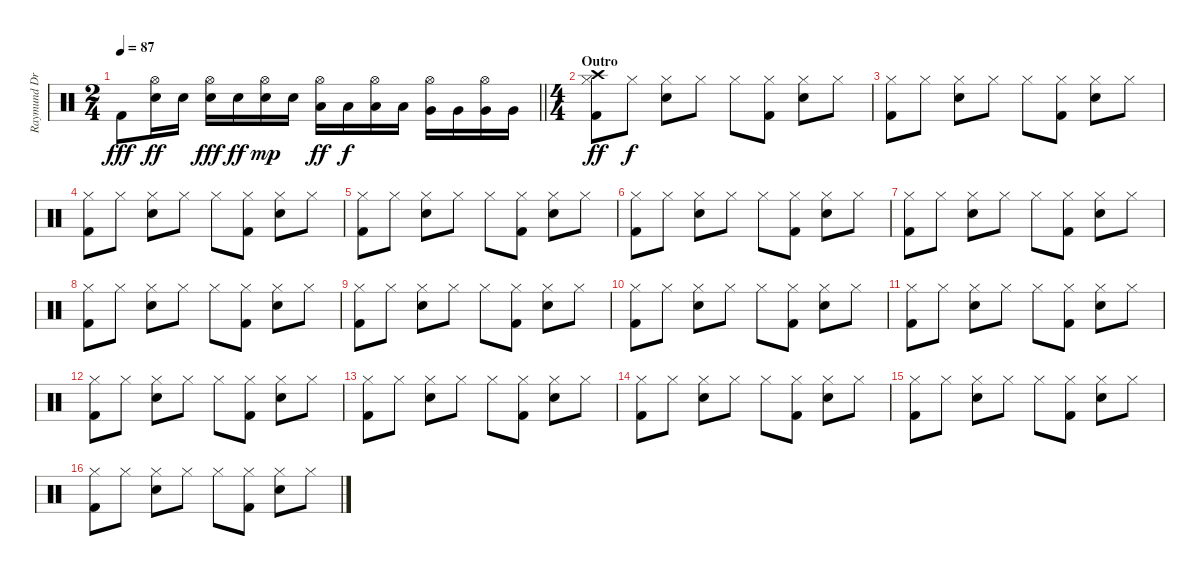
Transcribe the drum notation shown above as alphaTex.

\track ("Raymund Drums" "Raymund Dr") {instrument percussion}
\staff {score}
\articulation defaults
\ts (2 4)
\tempo 87
\clef neutral
\barLineRight lightlight
\ks c "Kick (hit) 2".8{dy fff}
("Hi-Hat (open)" "Snare (hit) 2").16{dy ff} "Snare (hit) 2".16 ("Hi-Hat (open)" "Snare (hit) 2").16{dy fff} "Snare (hit) 2".16{dy ff} ("Hi-Hat (open)" "Snare (hit) 2").16{dy mp} "Snare (hit) 2".16 ("Hi-Hat (open)" "Low Tom (hit)").16{dy ff} "Low Tom (hit)".16{dy f} ("Hi-Hat (open)" "Low Tom (hit)").16 "Low Tom (hit)".16 ("Hi-Hat (open)" "Very Low Tom (hit)").16 "Very Low Tom (hit)".16 ("Hi-Hat (open)" "Very Low Tom (hit)").16 "Very Low Tom (hit)".16 |
\ts (4 4)
\section ("" "Outro")
("Hi-Hat (closed)" "Kick (hit) 2" "Crash high (hit)").8{dy ff} "Hi-Hat (closed)".8{dy f} ("Hi-Hat (closed)" "Snare (hit) 2").8 "Hi-Hat (closed)".8 "Hi-Hat (closed)".8 ("Hi-Hat (closed)" "Kick (hit) 2").8 ("Hi-Hat (closed)" "Snare (hit) 2").8 "Hi-Hat (closed)".8 |
("Hi-Hat (closed)" "Kick (hit) 2").8 "Hi-Hat (closed)".8 ("Hi-Hat (closed)" "Snare (hit) 2").8 "Hi-Hat (closed)".8 "Hi-Hat (closed)".8 ("Hi-Hat (closed)" "Kick (hit) 2").8 ("Hi-Hat (closed)" "Snare (hit) 2").8 "Hi-Hat (closed)".8 |
("Hi-Hat (closed)" "Kick (hit) 2").8 "Hi-Hat (closed)".8 ("Hi-Hat (closed)" "Snare (hit) 2").8 "Hi-Hat (closed)".8 "Hi-Hat (closed)".8 ("Hi-Hat (closed)" "Kick (hit) 2").8 ("Hi-Hat (closed)" "Snare (hit) 2").8 "Hi-Hat (closed)".8 |
("Hi-Hat (closed)" "Kick (hit) 2").8 "Hi-Hat (closed)".8 ("Hi-Hat (closed)" "Snare (hit) 2").8 "Hi-Hat (closed)".8 "Hi-Hat (closed)".8 ("Hi-Hat (closed)" "Kick (hit) 2").8 ("Hi-Hat (closed)" "Snare (hit) 2").8 "Hi-Hat (closed)".8 |
("Hi-Hat (closed)" "Kick (hit) 2").8 "Hi-Hat (closed)".8 ("Hi-Hat (closed)" "Snare (hit) 2").8 "Hi-Hat (closed)".8 "Hi-Hat (closed)".8 ("Hi-Hat (closed)" "Kick (hit) 2").8 ("Hi-Hat (closed)" "Snare (hit) 2").8 "Hi-Hat (closed)".8 |
("Hi-Hat (closed)" "Kick (hit) 2").8 "Hi-Hat (closed)".8 ("Hi-Hat (closed)" "Snare (hit) 2").8 "Hi-Hat (closed)".8 "Hi-Hat (closed)".8 ("Hi-Hat (closed)" "Kick (hit) 2").8 ("Hi-Hat (closed)" "Snare (hit) 2").8 "Hi-Hat (closed)".8 |
("Hi-Hat (closed)" "Kick (hit) 2").8 "Hi-Hat (closed)".8 ("Hi-Hat (closed)" "Snare (hit) 2").8 "Hi-Hat (closed)".8 "Hi-Hat (closed)".8 ("Hi-Hat (closed)" "Kick (hit) 2").8 ("Hi-Hat (closed)" "Snare (hit) 2").8 "Hi-Hat (closed)".8 |
("Hi-Hat (closed)" "Kick (hit) 2").8 "Hi-Hat (closed)".8 ("Hi-Hat (closed)" "Snare (hit) 2").8 "Hi-Hat (closed)".8 "Hi-Hat (closed)".8 ("Hi-Hat (closed)" "Kick (hit) 2").8 ("Hi-Hat (closed)" "Snare (hit) 2").8 "Hi-Hat (closed)".8 |
("Hi-Hat (closed)" "Kick (hit) 2").8 "Hi-Hat (closed)".8 ("Hi-Hat (closed)" "Snare (hit) 2").8 "Hi-Hat (closed)".8 "Hi-Hat (closed)".8 ("Hi-Hat (closed)" "Kick (hit) 2").8 ("Hi-Hat (closed)" "Snare (hit) 2").8 "Hi-Hat (closed)".8 |
("Hi-Hat (closed)" "Kick (hit) 2").8 "Hi-Hat (closed)".8 ("Hi-Hat (closed)" "Snare (hit) 2").8 "Hi-Hat (closed)".8 "Hi-Hat (closed)".8 ("Hi-Hat (closed)" "Kick (hit) 2").8 ("Hi-Hat (closed)" "Snare (hit) 2").8 "Hi-Hat (closed)".8 |
("Hi-Hat (closed)" "Kick (hit) 2").8 "Hi-Hat (closed)".8 ("Hi-Hat (closed)" "Snare (hit) 2").8 "Hi-Hat (closed)".8 "Hi-Hat (closed)".8 ("Hi-Hat (closed)" "Kick (hit) 2").8 ("Hi-Hat (closed)" "Snare (hit) 2").8 "Hi-Hat (closed)".8 |
("Hi-Hat (closed)" "Kick (hit) 2").8 "Hi-Hat (closed)".8 ("Hi-Hat (closed)" "Snare (hit) 2").8 "Hi-Hat (closed)".8 "Hi-Hat (closed)".8 ("Hi-Hat (closed)" "Kick (hit) 2").8 ("Hi-Hat (closed)" "Snare (hit) 2").8 "Hi-Hat (closed)".8 |
("Hi-Hat (closed)" "Kick (hit) 2").8{volume 0} "Hi-Hat (closed)".8 ("Hi-Hat (closed)" "Snare (hit) 2").8 "Hi-Hat (closed)".8 "Hi-Hat (closed)".8 ("Hi-Hat (closed)" "Kick (hit) 2").8 ("Hi-Hat (closed)" "Snare (hit) 2").8 "Hi-Hat (closed)".8 |
("Hi-Hat (closed)" "Kick (hit) 2").8 "Hi-Hat (closed)".8 ("Hi-Hat (closed)" "Snare (hit) 2").8 "Hi-Hat (closed)".8 "Hi-Hat (closed)".8 ("Hi-Hat (closed)" "Kick (hit) 2").8 ("Hi-Hat (closed)" "Snare (hit) 2").8 "Hi-Hat (closed)".8 |
("Hi-Hat (closed)" "Kick (hit) 2").8 "Hi-Hat (closed)".8 ("Hi-Hat (closed)" "Snare (hit) 2").8 "Hi-Hat (closed)".8 "Hi-Hat (closed)".8 ("Hi-Hat (closed)" "Kick (hit) 2").8 ("Hi-Hat (closed)" "Snare (hit) 2").8 "Hi-Hat (closed)".8
